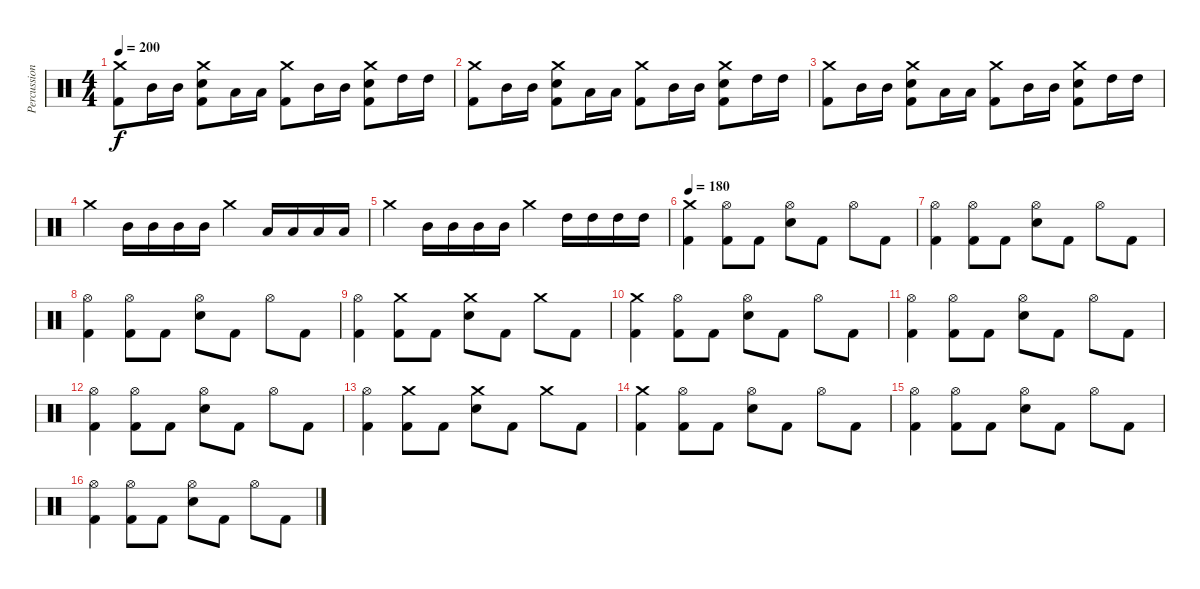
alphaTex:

\track ("Percussion" "Percussion") {instrument percussion}
\staff {score}
\articulation defaults
\ts (4 4)
\tempo 200
\clef neutral
\ks c
("Crash medium (hit)" "Kick (hit) 2").8{dy f} "Mid Tom (hit)".16 "Mid Tom (hit)".16 ("Crash medium (hit)" "Electric Snare (hit)" "Kick (hit) 2").8 "Low Tom (hit)".16 "Low Tom (hit)".16 ("Crash medium (hit)" "Kick (hit) 2").8 "Mid Tom (hit)".16 "Mid Tom (hit)".16 ("Crash medium (hit)" "Electric Snare (hit)" "Kick (hit) 2").8 "High Tom (hit)".16 "High Tom (hit)".16 |
("Crash medium (hit)" "Kick (hit) 2").8 "Mid Tom (hit)".16 "Mid Tom (hit)".16 ("Crash medium (hit)" "Electric Snare (hit)" "Kick (hit) 2").8 "Low Tom (hit)".16 "Low Tom (hit)".16 ("Crash medium (hit)" "Kick (hit) 2").8 "Mid Tom (hit)".16 "Mid Tom (hit)".16 ("Crash medium (hit)" "Electric Snare (hit)" "Kick (hit) 2").8 "High Tom (hit)".16 "High Tom (hit)".16 |
("Crash medium (hit)" "Kick (hit) 2").8 "Mid Tom (hit)".16 "Mid Tom (hit)".16 ("Crash medium (hit)" "Electric Snare (hit)" "Kick (hit) 2").8 "Low Tom (hit)".16 "Low Tom (hit)".16 ("Crash medium (hit)" "Kick (hit) 2").8 "Mid Tom (hit)".16 "Mid Tom (hit)".16 ("Crash medium (hit)" "Electric Snare (hit)" "Kick (hit) 2").8 "High Tom (hit)".16 "High Tom (hit)".16 |
"Crash medium (hit)".4 "Mid Tom (hit)".16 "Mid Tom (hit)".16 "Mid Tom (hit)".16 "Mid Tom (hit)".16 "Crash medium (hit)".4 "Low Tom (hit)".16 "Low Tom (hit)".16 "Low Tom (hit)".16 "Low Tom (hit)".16 |
"Crash medium (hit)".4 "Mid Tom (hit)".16 "Mid Tom (hit)".16 "Mid Tom (hit)".16 "Mid Tom (hit)".16 "Crash medium (hit)".4 "High Tom (hit)".16 "High Tom (hit)".16 "High Tom (hit)".16 "High Tom (hit)".16 |
\tempo 180
("Crash medium (hit)" "Kick (hit) 2").4 ("Hi-Hat (open)" "Kick (hit) 2").8 "Kick (hit) 2".8 ("Hi-Hat (open)" "Electric Snare (hit)").8 "Kick (hit) 2".8 "Hi-Hat (open)".8 "Kick (hit) 2".8 |
("Hi-Hat (open)" "Kick (hit) 2").4 ("Hi-Hat (open)" "Kick (hit) 2").8 "Kick (hit) 2".8 ("Hi-Hat (open)" "Electric Snare (hit)").8 "Kick (hit) 2".8 "Hi-Hat (open)".8 "Kick (hit) 2".8 |
("Hi-Hat (open)" "Kick (hit) 2").4 ("Hi-Hat (open)" "Kick (hit) 2").8 "Kick (hit) 2".8 ("Hi-Hat (open)" "Electric Snare (hit)").8 "Kick (hit) 2".8 "Hi-Hat (open)".8 "Kick (hit) 2".8 |
("Hi-Hat (open)" "Kick (hit) 2").4 ("Crash medium (hit)" "Kick (hit) 2").8 "Kick (hit) 2".8 ("Crash medium (hit)" "Electric Snare (hit)").8 "Kick (hit) 2".8 "Crash medium (hit)".8 "Kick (hit) 2".8 |
("Crash medium (hit)" "Kick (hit) 2").4 ("Hi-Hat (open)" "Kick (hit) 2").8 "Kick (hit) 2".8 ("Hi-Hat (open)" "Electric Snare (hit)").8 "Kick (hit) 2".8 "Hi-Hat (open)".8 "Kick (hit) 2".8 |
("Hi-Hat (open)" "Kick (hit) 2").4 ("Hi-Hat (open)" "Kick (hit) 2").8 "Kick (hit) 2".8 ("Hi-Hat (open)" "Electric Snare (hit)").8 "Kick (hit) 2".8 "Hi-Hat (open)".8 "Kick (hit) 2".8 |
("Hi-Hat (open)" "Kick (hit) 2").4 ("Hi-Hat (open)" "Kick (hit) 2").8 "Kick (hit) 2".8 ("Hi-Hat (open)" "Electric Snare (hit)").8 "Kick (hit) 2".8 "Hi-Hat (open)".8 "Kick (hit) 2".8 |
("Hi-Hat (open)" "Kick (hit) 2").4 ("Crash medium (hit)" "Kick (hit) 2").8 "Kick (hit) 2".8 ("Crash medium (hit)" "Electric Snare (hit)").8 "Kick (hit) 2".8 "Crash medium (hit)".8 "Kick (hit) 2".8 |
("Crash medium (hit)" "Kick (hit) 2").4 ("Hi-Hat (open)" "Kick (hit) 2").8 "Kick (hit) 2".8 ("Hi-Hat (open)" "Electric Snare (hit)").8 "Kick (hit) 2".8 "Hi-Hat (open)".8 "Kick (hit) 2".8 |
("Hi-Hat (open)" "Kick (hit) 2").4 ("Hi-Hat (open)" "Kick (hit) 2").8 "Kick (hit) 2".8 ("Hi-Hat (open)" "Electric Snare (hit)").8 "Kick (hit) 2".8 "Hi-Hat (open)".8 "Kick (hit) 2".8 |
("Hi-Hat (open)" "Kick (hit) 2").4 ("Hi-Hat (open)" "Kick (hit) 2").8 "Kick (hit) 2".8 ("Hi-Hat (open)" "Electric Snare (hit)").8 "Kick (hit) 2".8 "Hi-Hat (open)".8 "Kick (hit) 2".8
